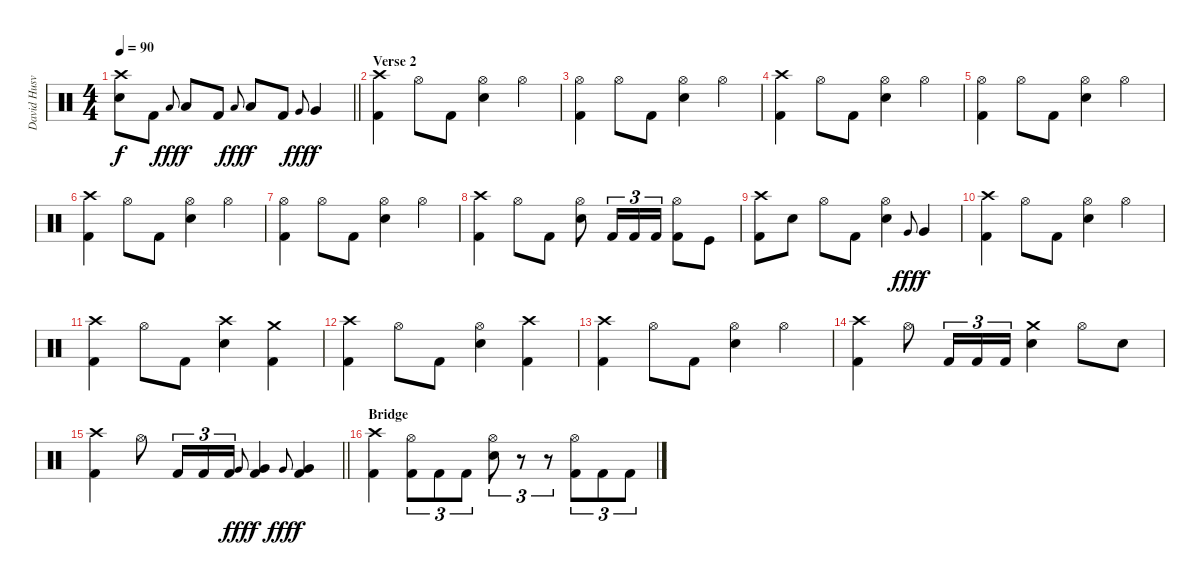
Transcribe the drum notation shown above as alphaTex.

\track ("David Husvik" "David Husv") {instrument percussion}
\staff {score}
\articulation defaults
\ts (4 4)
\tempo 90
\clef neutral
\barLineRight lightlight
\ks c
("Crash high (hit)" "Snare (hit) 2").8{dy f} "Kick (hit) 2".8 "Low Tom (hit)".8{gr onbeat dy fff} "Low Tom (hit)".8{dy f} "Kick (hit) 2".8 "Low Tom (hit)".8{gr onbeat dy fff} "Low Tom (hit)".8{dy f} "Kick (hit) 2".8 "Very Low Tom (hit)".8{gr onbeat dy fff} "Very Low Tom (hit)".4{dy f} |
\section ("" "Verse 2")
("Crash high (hit)" "Kick (hit) 2").4 "Hi-Hat (open)".8 "Kick (hit) 2".8 ("Hi-Hat (open)" "Snare (hit) 2").4 "Hi-Hat (open)".4 |
("Hi-Hat (open)" "Kick (hit) 2").4 "Hi-Hat (open)".8 "Kick (hit) 2".8 ("Hi-Hat (open)" "Snare (hit) 2").4 "Hi-Hat (open)".4 |
("Crash high (hit)" "Kick (hit) 2").4 "Hi-Hat (open)".8 "Kick (hit) 2".8 ("Hi-Hat (open)" "Snare (hit) 2").4 "Hi-Hat (open)".4 |
("Hi-Hat (open)" "Kick (hit) 2").4 "Hi-Hat (open)".8 "Kick (hit) 2".8 ("Hi-Hat (open)" "Snare (hit) 2").4 "Hi-Hat (open)".4 |
("Crash high (hit)" "Kick (hit) 2").4 "Hi-Hat (open)".8 "Kick (hit) 2".8 ("Hi-Hat (open)" "Snare (hit) 2").4 "Hi-Hat (open)".4 |
("Hi-Hat (open)" "Kick (hit) 2").4 "Hi-Hat (open)".8 "Kick (hit) 2".8 ("Hi-Hat (open)" "Snare (hit) 2").4 "Hi-Hat (open)".4 |
("Crash high (hit)" "Kick (hit) 2").4 "Hi-Hat (open)".8 "Kick (hit) 2".8 ("Hi-Hat (open)" "Snare (hit) 2").8 "Kick (hit) 2".16{tu (3 2)} "Kick (hit) 2".16{tu (3 2)} "Kick (hit) 2".16{tu (3 2)} ("Hi-Hat (open)" "Kick (hit) 2").8 "Kick (hit)".8 |
("Kick (hit) 2" "Crash high (hit)").8 "Snare (hit) 2".8 "Hi-Hat (open)".8 "Kick (hit) 2".8 ("Hi-Hat (open)" "Snare (hit) 2").4 "Very Low Tom (hit)".8{gr onbeat dy fff} "Very Low Tom (hit)".4{dy f} |
("Crash high (hit)" "Kick (hit) 2").4 "Hi-Hat (open)".8 "Kick (hit) 2".8 ("Hi-Hat (open)" "Snare (hit) 2").4 "Hi-Hat (open)".4 |
("Crash high (hit)" "Kick (hit) 2").4 "Hi-Hat (open)".8 "Kick (hit) 2".8 ("Crash high (hit)" "Snare (hit) 2").4 ("Crash medium (hit)" "Kick (hit) 2").4 |
("Crash high (hit)" "Kick (hit) 2").4 "Hi-Hat (open)".8 "Kick (hit) 2".8 ("Hi-Hat (open)" "Snare (hit) 2").4 ("Crash high (hit)" "Kick (hit) 2").4 |
("Crash high (hit)" "Kick (hit) 2").4 "Hi-Hat (open)".8 "Kick (hit) 2".8 ("Hi-Hat (open)" "Snare (hit) 2").4 "Hi-Hat (open)".4 |
("Crash high (hit)" "Kick (hit) 2").4 "Hi-Hat (open)".8 "Kick (hit) 2".16{tu (3 2)} "Kick (hit) 2".16{tu (3 2)} "Kick (hit) 2".16{tu (3 2)} ("Crash medium (hit)" "Snare (hit) 2").4 "Hi-Hat (open)".8 "Snare (hit) 2".8 |
\barLineRight lightlight
("Crash high (hit)" "Kick (hit) 2").4 "Hi-Hat (open)".8 "Kick (hit) 2".16{tu (3 2)} "Kick (hit) 2".16{tu (3 2)} "Kick (hit) 2".16{tu (3 2)} "Very Low Tom (hit)".8{gr onbeat dy fff} ("Very Low Tom (hit)" "Kick (hit) 2").4{dy f} "Very Low Tom (hit)".8{gr onbeat dy fff} ("Very Low Tom (hit)" "Kick (hit) 2").4{dy f} |
\section ("" "Bridge")
("Kick (hit) 2" "Crash high (hit)").4 ("Hi-Hat (open)" "Kick (hit) 2").8{tu (3 2)} "Kick (hit) 2".8{tu (3 2)} "Kick (hit) 2".8{tu (3 2)} ("Hi-Hat (open)" "Snare (hit) 2").8{tu (3 2)} r.8{tu (3 2)} r.8{tu (3 2)} ("Kick (hit) 2" "Hi-Hat (open)").8{tu (3 2)} "Kick (hit) 2".8{tu (3 2)} "Kick (hit) 2".8{tu (3 2)}
